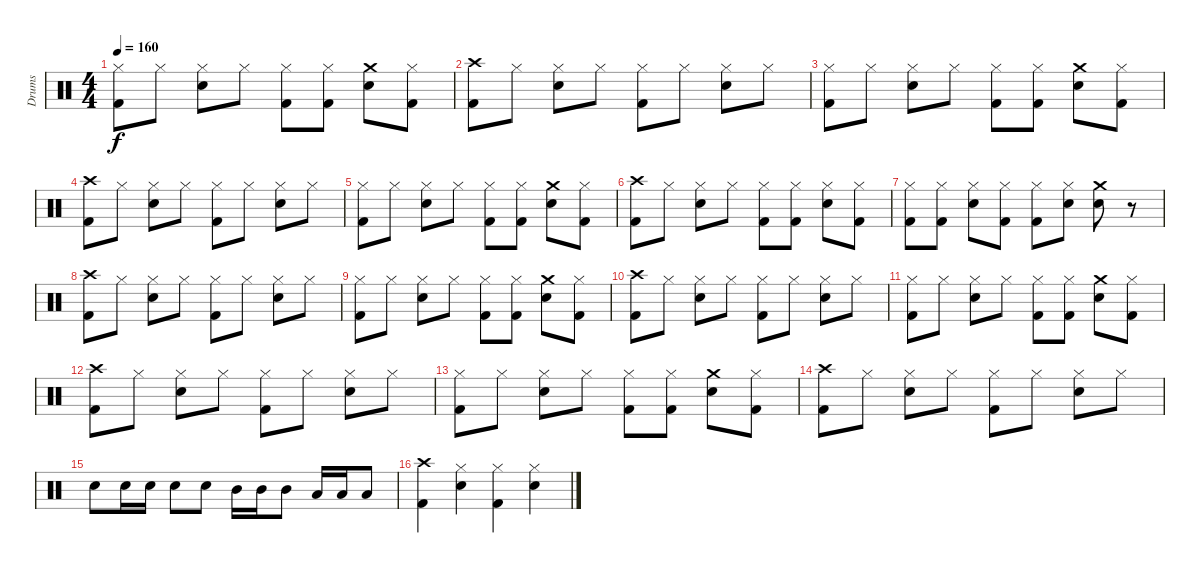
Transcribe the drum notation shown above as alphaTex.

\track ("Drums" "Drums") {instrument percussion}
\staff {score}
\articulation defaults
\ts (4 4)
\tempo 160
\clef neutral
\ks c
("Hi-Hat (closed)" "Kick (hit) 2").8{dy f} "Hi-Hat (closed)".8 ("Hi-Hat (closed)" "Electric Snare (hit)").8 "Hi-Hat (closed)".8 ("Hi-Hat (closed)" "Kick (hit) 2").8 ("Hi-Hat (closed)" "Kick (hit) 2").8 ("Crash medium (hit)" "Electric Snare (hit)").8 ("Hi-Hat (closed)" "Kick (hit) 2").8 |
("Crash high (hit)" "Kick (hit) 2").8 "Hi-Hat (closed)".8 ("Hi-Hat (closed)" "Electric Snare (hit)").8 "Hi-Hat (closed)".8 ("Hi-Hat (closed)" "Kick (hit) 2").8 "Hi-Hat (closed)".8 ("Hi-Hat (closed)" "Electric Snare (hit)").8 "Hi-Hat (closed)".8 |
("Hi-Hat (closed)" "Kick (hit) 2").8 "Hi-Hat (closed)".8 ("Hi-Hat (closed)" "Electric Snare (hit)").8 "Hi-Hat (closed)".8 ("Hi-Hat (closed)" "Kick (hit) 2").8 ("Hi-Hat (closed)" "Kick (hit) 2").8 ("Crash medium (hit)" "Electric Snare (hit)").8 ("Hi-Hat (closed)" "Kick (hit) 2").8 |
("Crash high (hit)" "Kick (hit) 2").8 "Hi-Hat (closed)".8 ("Hi-Hat (closed)" "Electric Snare (hit)").8 "Hi-Hat (closed)".8 ("Hi-Hat (closed)" "Kick (hit) 2").8 "Hi-Hat (closed)".8 ("Hi-Hat (closed)" "Electric Snare (hit)").8 "Hi-Hat (closed)".8 |
("Hi-Hat (closed)" "Kick (hit) 2").8 "Hi-Hat (closed)".8 ("Hi-Hat (closed)" "Electric Snare (hit)").8 "Hi-Hat (closed)".8 ("Hi-Hat (closed)" "Kick (hit) 2").8 ("Hi-Hat (closed)" "Kick (hit) 2").8 ("Crash medium (hit)" "Electric Snare (hit)").8 ("Hi-Hat (closed)" "Kick (hit) 2").8 |
("Crash high (hit)" "Kick (hit) 2").8 "Hi-Hat (closed)".8 ("Hi-Hat (closed)" "Electric Snare (hit)").8 "Hi-Hat (closed)".8 ("Hi-Hat (closed)" "Kick (hit) 2").8 ("Hi-Hat (closed)" "Kick (hit) 2").8 ("Hi-Hat (closed)" "Electric Snare (hit)").8 ("Hi-Hat (closed)" "Kick (hit) 2").8 |
("Hi-Hat (closed)" "Kick (hit) 2").8 ("Hi-Hat (closed)" "Kick (hit) 2").8 ("Hi-Hat (closed)" "Electric Snare (hit)").8 ("Hi-Hat (closed)" "Kick (hit) 2").8 ("Hi-Hat (closed)" "Kick (hit) 2").8 ("Hi-Hat (closed)" "Electric Snare (hit)").8 ("Crash medium (hit)" "Electric Snare (hit)").8 r.8 |
("Crash high (hit)" "Kick (hit) 2").8 "Hi-Hat (closed)".8 ("Hi-Hat (closed)" "Electric Snare (hit)").8 "Hi-Hat (closed)".8 ("Hi-Hat (closed)" "Kick (hit) 2").8 "Hi-Hat (closed)".8 ("Hi-Hat (closed)" "Electric Snare (hit)").8 "Hi-Hat (closed)".8 |
("Hi-Hat (closed)" "Kick (hit) 2").8 "Hi-Hat (closed)".8 ("Hi-Hat (closed)" "Electric Snare (hit)").8 "Hi-Hat (closed)".8 ("Hi-Hat (closed)" "Kick (hit) 2").8 ("Hi-Hat (closed)" "Kick (hit) 2").8 ("Crash medium (hit)" "Electric Snare (hit)").8 ("Hi-Hat (closed)" "Kick (hit) 2").8 |
("Crash high (hit)" "Kick (hit) 2").8 "Hi-Hat (closed)".8 ("Hi-Hat (closed)" "Electric Snare (hit)").8 "Hi-Hat (closed)".8 ("Hi-Hat (closed)" "Kick (hit) 2").8 "Hi-Hat (closed)".8 ("Hi-Hat (closed)" "Electric Snare (hit)").8 "Hi-Hat (closed)".8 |
("Hi-Hat (closed)" "Kick (hit) 2").8 "Hi-Hat (closed)".8 ("Hi-Hat (closed)" "Electric Snare (hit)").8 "Hi-Hat (closed)".8 ("Hi-Hat (closed)" "Kick (hit) 2").8 ("Hi-Hat (closed)" "Kick (hit) 2").8 ("Crash medium (hit)" "Electric Snare (hit)").8 ("Hi-Hat (closed)" "Kick (hit) 2").8 |
("Crash high (hit)" "Kick (hit) 2").8 "Hi-Hat (closed)".8 ("Hi-Hat (closed)" "Electric Snare (hit)").8 "Hi-Hat (closed)".8 ("Hi-Hat (closed)" "Kick (hit) 2").8 "Hi-Hat (closed)".8 ("Hi-Hat (closed)" "Electric Snare (hit)").8 "Hi-Hat (closed)".8 |
("Hi-Hat (closed)" "Kick (hit) 2").8 "Hi-Hat (closed)".8 ("Hi-Hat (closed)" "Electric Snare (hit)").8 "Hi-Hat (closed)".8 ("Hi-Hat (closed)" "Kick (hit) 2").8 ("Hi-Hat (closed)" "Kick (hit) 2").8 ("Crash medium (hit)" "Electric Snare (hit)").8 ("Hi-Hat (closed)" "Kick (hit) 2").8 |
("Crash high (hit)" "Kick (hit) 2").8 "Hi-Hat (closed)".8 ("Hi-Hat (closed)" "Electric Snare (hit)").8 "Hi-Hat (closed)".8 ("Hi-Hat (closed)" "Kick (hit) 2").8 "Hi-Hat (closed)".8 ("Hi-Hat (closed)" "Electric Snare (hit)").8 "Hi-Hat (closed)".8 |
"Electric Snare (hit)".8 "Electric Snare (hit)".16 "Electric Snare (hit)".16 "Electric Snare (hit)".8 "Electric Snare (hit)".8 "Mid Tom (hit)".16 "Mid Tom (hit)".16 "Mid Tom (hit)".8 "Low Tom (hit)".16 "Low Tom (hit)".16 "Low Tom (hit)".8 |
("Crash high (hit)" "Kick (hit) 2").4 ("Hi-Hat (closed)" "Electric Snare (hit)").4 ("Hi-Hat (closed)" "Kick (hit) 2").4 ("Hi-Hat (closed)" "Electric Snare (hit)").4
